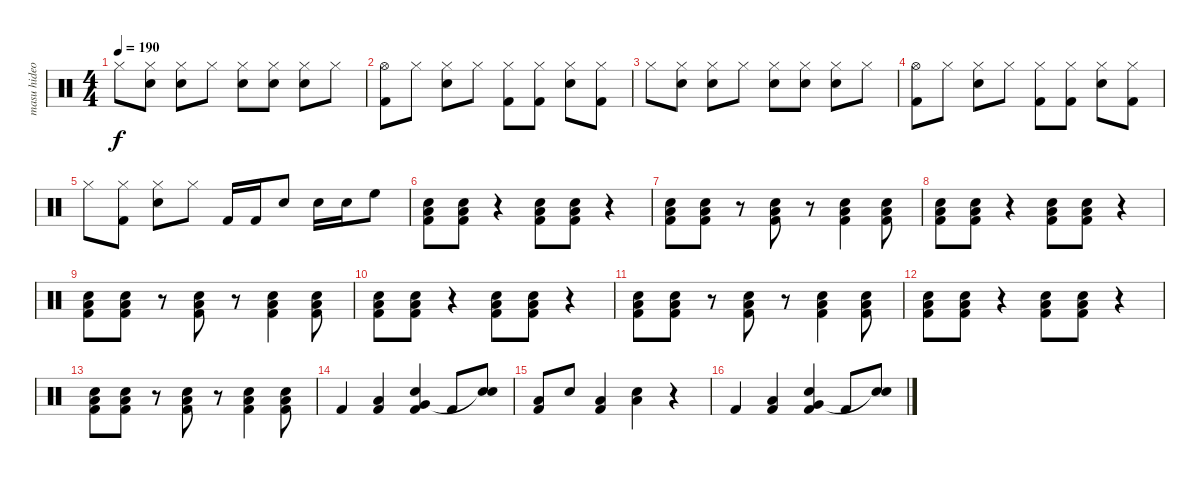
\track ("masu hideo" "masu hideo") {instrument percussion}
\staff {score}
\articulation defaults
\ts (4 4)
\tempo 190
\clef neutral
\ks c "Hi-Hat (closed)".8{dy f}
("Hi-Hat (closed)" "Snare (hit) 2").8 ("Hi-Hat (closed)" "Snare (hit) 2").8 "Hi-Hat (closed)".8 ("Hi-Hat (closed)" "Snare (hit) 2").8 ("Hi-Hat (closed)" "Snare (hit) 2").8 ("Hi-Hat (closed)" "Snare (hit) 2").8 "Hi-Hat (closed)".8 |
("Hi-Hat (open)" "Kick (hit) 2").8 "Hi-Hat (closed)".8 ("Hi-Hat (closed)" "Snare (hit) 2").8 "Hi-Hat (closed)".8 ("Hi-Hat (closed)" "Kick (hit) 2").8 ("Hi-Hat (closed)" "Kick (hit) 2").8 ("Hi-Hat (closed)" "Snare (hit) 2").8 ("Hi-Hat (closed)" "Kick (hit) 2").8 |
"Hi-Hat (closed)".8 ("Hi-Hat (closed)" "Snare (hit) 2").8 ("Hi-Hat (closed)" "Snare (hit) 2").8 "Hi-Hat (closed)".8 ("Hi-Hat (closed)" "Snare (hit) 2").8 ("Hi-Hat (closed)" "Snare (hit) 2").8 ("Hi-Hat (closed)" "Snare (hit) 2").8 "Hi-Hat (closed)".8 |
("Hi-Hat (open)" "Kick (hit) 2").8 "Hi-Hat (closed)".8 ("Hi-Hat (closed)" "Snare (hit) 2").8 "Hi-Hat (closed)".8 ("Hi-Hat (closed)" "Kick (hit) 2").8 ("Hi-Hat (closed)" "Kick (hit) 2").8 ("Hi-Hat (closed)" "Snare (hit) 2").8 ("Hi-Hat (closed)" "Kick (hit) 2").8 |
"Hi-Hat (closed)".8 ("Hi-Hat (closed)" "Kick (hit) 2").8 ("Hi-Hat (closed)" "Snare (hit) 2").8 "Hi-Hat (closed)".8 "Kick (hit) 2".16 "Kick (hit) 2".16 "Snare (hit) 2".8 "Snare (hit) 2".16 "Snare (hit) 2".16 "High Floor Tom (hit)".8 |
("Snare (hit) 2" "Low Floor Tom (hit)" "Kick (hit) 2").8 ("Snare (hit) 2" "Low Floor Tom (hit)" "Kick (hit) 2").8 r.4 ("Snare (hit) 2" "Low Floor Tom (hit)" "Kick (hit) 2").8 ("Snare (hit) 2" "Low Floor Tom (hit)" "Kick (hit) 2").8 r.4 |
("Snare (hit) 2" "Low Floor Tom (hit)" "Kick (hit) 2").8 ("Snare (hit) 2" "Low Floor Tom (hit)" "Kick (hit) 2").8 r.8 ("Snare (hit) 2" "Low Floor Tom (hit)" "Kick (hit) 2").8 r.8 ("Snare (hit) 2" "Low Floor Tom (hit)" "Kick (hit) 2").4 ("Snare (hit) 2" "Low Floor Tom (hit)" "Kick (hit) 2").8 |
("Snare (hit) 2" "Low Floor Tom (hit)" "Kick (hit) 2").8 ("Snare (hit) 2" "Low Floor Tom (hit)" "Kick (hit) 2").8 r.4 ("Snare (hit) 2" "Low Floor Tom (hit)" "Kick (hit) 2").8 ("Snare (hit) 2" "Low Floor Tom (hit)" "Kick (hit) 2").8 r.4 |
("Snare (hit) 2" "Low Floor Tom (hit)" "Kick (hit) 2").8 ("Snare (hit) 2" "Low Floor Tom (hit)" "Kick (hit) 2").8 r.8 ("Snare (hit) 2" "Low Floor Tom (hit)" "Kick (hit) 2").8 r.8 ("Snare (hit) 2" "Low Floor Tom (hit)" "Kick (hit) 2").4 ("Snare (hit) 2" "Low Floor Tom (hit)" "Kick (hit) 2").8 |
("Snare (hit) 2" "Low Floor Tom (hit)" "Kick (hit) 2").8 ("Snare (hit) 2" "Low Floor Tom (hit)" "Kick (hit) 2").8 r.4 ("Snare (hit) 2" "Low Floor Tom (hit)" "Kick (hit) 2").8 ("Snare (hit) 2" "Low Floor Tom (hit)" "Kick (hit) 2").8 r.4 |
("Snare (hit) 2" "Low Floor Tom (hit)" "Kick (hit) 2").8 ("Snare (hit) 2" "Low Floor Tom (hit)" "Kick (hit) 2").8 r.8 ("Snare (hit) 2" "Low Floor Tom (hit)" "Kick (hit) 2").8 r.8 ("Snare (hit) 2" "Low Floor Tom (hit)" "Kick (hit) 2").4 ("Snare (hit) 2" "Low Floor Tom (hit)" "Kick (hit) 2").8 |
("Snare (hit) 2" "Low Floor Tom (hit)" "Kick (hit) 2").8 ("Snare (hit) 2" "Low Floor Tom (hit)" "Kick (hit) 2").8 r.4 ("Snare (hit) 2" "Low Floor Tom (hit)" "Kick (hit) 2").8 ("Snare (hit) 2" "Low Floor Tom (hit)" "Kick (hit) 2").8 r.4 |
("Snare (hit) 2" "Low Floor Tom (hit)" "Kick (hit) 2").8 ("Snare (hit) 2" "Low Floor Tom (hit)" "Kick (hit) 2").8 r.8 ("Snare (hit) 2" "Low Floor Tom (hit)" "Kick (hit) 2").8 r.8 ("Snare (hit) 2" "Low Floor Tom (hit)" "Kick (hit) 2").4 ("Snare (hit) 2" "Low Floor Tom (hit)" "Kick (hit) 2").8 |
"Kick (hit) 2".4 ("Low Floor Tom (hit)" "Kick (hit) 2").4 ("Snare (hit) 2" "Very Low Tom (hit)" "Kick (hit) 2").4 "Kick (hit) 2".8 ("Snare (hit) 2" "Snare (hit)"{t}).8 |
("Low Floor Tom (hit)" "Kick (hit) 2").8 "Snare (hit) 2".8 ("Low Floor Tom (hit)" "Kick (hit) 2").4 ("Snare (hit) 2" "Low Floor Tom (hit)").4 r.4 |
"Kick (hit) 2".4 ("Low Floor Tom (hit)" "Kick (hit) 2").4 ("Snare (hit) 2" "Very Low Tom (hit)" "Kick (hit) 2").4 "Kick (hit) 2".8 ("Snare (hit) 2" "Snare (hit)"{t}).8
